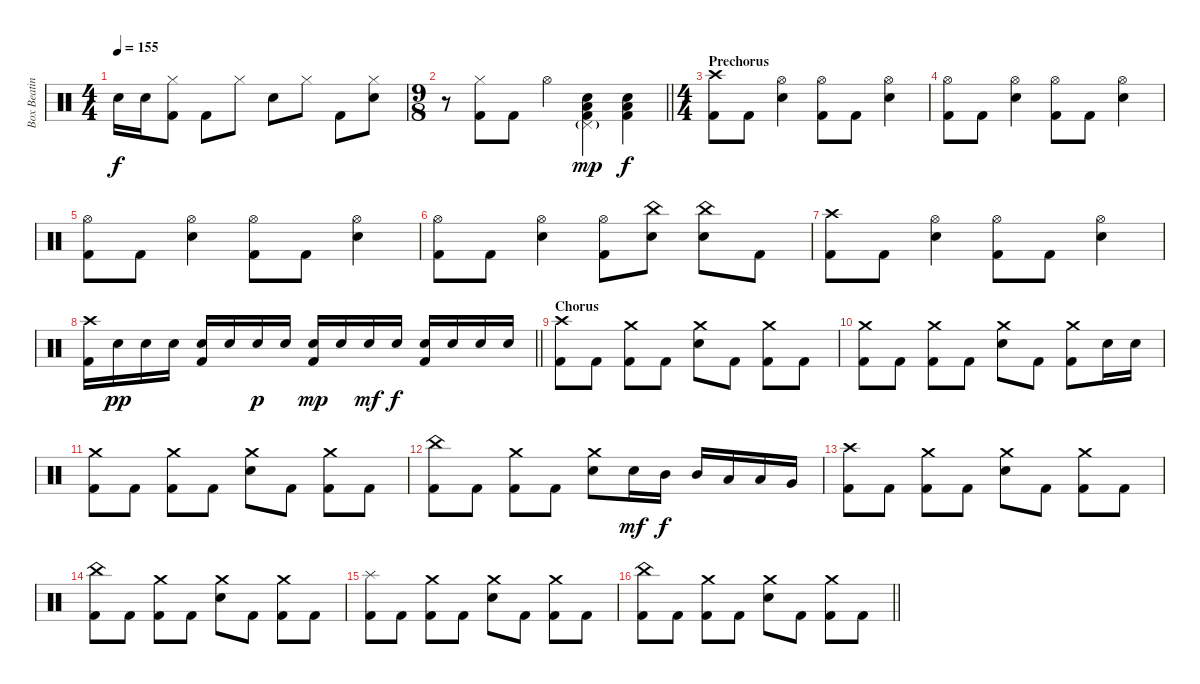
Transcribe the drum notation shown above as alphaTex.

\track ("Box Beating" "Box Beatin") {instrument percussion}
\staff {score}
\articulation defaults
\ts (4 4)
\tempo 155
\clef neutral
\ks c "Electric Snare (hit)".16{dy f} "Electric Snare (hit)".16
("Hi-Hat (closed)" "Kick (hit) 2").8 "Kick (hit) 2".8 "Hi-Hat (closed)".8 "Electric Snare (hit)".8 "Hi-Hat (closed)".8 "Kick (hit) 2".8 ("Hi-Hat (closed)" "Electric Snare (hit)").8 |
\ts (9 8)
\barLineRight lightlight
r.8 ("Hi-Hat (closed)" "Kick (hit) 2").8 "Kick (hit) 2".8 "Hi-Hat (open)".4 ("Pedal Hi-Hat (hit)"{g} "Low Floor Tom (hit)" "Electric Snare (hit)" "Kick (hit) 2").4{dy mp} ("Low Floor Tom (hit)" "Electric Snare (hit)" "Kick (hit) 2").4{dy f} |
\ts (4 4)
\section ("" "Prechorus")
("Crash high (hit)" "Kick (hit) 2").8 "Kick (hit) 2".8 ("Hi-Hat (open)" "Electric Snare (hit)").4 ("Hi-Hat (open)" "Kick (hit) 2").8 "Kick (hit) 2".8 ("Hi-Hat (open)" "Electric Snare (hit)").4 |
("Hi-Hat (open)" "Kick (hit) 2").8 "Kick (hit) 2".8 ("Hi-Hat (open)" "Electric Snare (hit)").4 ("Hi-Hat (open)" "Kick (hit) 2").8 "Kick (hit) 2".8 ("Hi-Hat (open)" "Electric Snare (hit)").4 |
("Hi-Hat (open)" "Kick (hit) 2").8 "Kick (hit) 2".8 ("Hi-Hat (open)" "Electric Snare (hit)").4 ("Hi-Hat (open)" "Kick (hit) 2").8 "Kick (hit) 2".8 ("Hi-Hat (open)" "Electric Snare (hit)").4 |
("Hi-Hat (open)" "Kick (hit) 2").8 "Kick (hit) 2".8 ("Hi-Hat (open)" "Electric Snare (hit)").4 ("Hi-Hat (open)" "Kick (hit) 2").8 ("China (hit)" "Electric Snare (hit)").8 ("China (hit)" "Electric Snare (hit)").8 "Kick (hit) 2".8 |
("Crash high (hit)" "Kick (hit) 2").8 "Kick (hit) 2".8 ("Hi-Hat (open)" "Electric Snare (hit)").4 ("Hi-Hat (open)" "Kick (hit) 2").8 "Kick (hit) 2".8 ("Hi-Hat (open)" "Electric Snare (hit)").4 |
\barLineRight lightlight
("Crash high (hit)" "Kick (hit) 2").16 "Electric Snare (hit)".16{dy pp} "Electric Snare (hit)".16 "Electric Snare (hit)".16 ("Electric Snare (hit)" "Kick (hit) 2").16 "Electric Snare (hit)".16 "Electric Snare (hit)".16{dy p} "Electric Snare (hit)".16 ("Electric Snare (hit)" "Kick (hit) 2").16{dy mp} "Electric Snare (hit)".16 "Electric Snare (hit)".16{dy mf} "Electric Snare (hit)".16{dy f} ("Electric Snare (hit)" "Kick (hit) 2").16 "Electric Snare (hit)".16 "Electric Snare (hit)".16 "Electric Snare (hit)".16 |
\section ("" "Chorus")
("Crash high (hit)" "Kick (hit) 2").8 "Kick (hit) 2".8 ("Crash medium (hit)" "Kick (hit) 2").8 "Kick (hit) 2".8 ("Crash medium (hit)" "Electric Snare (hit)").8 "Kick (hit) 2".8 ("Crash medium (hit)" "Kick (hit) 2").8 "Kick (hit) 2".8 |
("Crash medium (hit)" "Kick (hit) 2").8 "Kick (hit) 2".8 ("Crash medium (hit)" "Kick (hit) 2").8 "Kick (hit) 2".8 ("Crash medium (hit)" "Electric Snare (hit)").8 "Kick (hit) 2".8 ("Crash medium (hit)" "Kick (hit) 2").8 "Electric Snare (hit)".16 "Electric Snare (hit)".16 |
("Crash medium (hit)" "Kick (hit) 2").8 "Kick (hit) 2".8 ("Crash medium (hit)" "Kick (hit) 2").8 "Kick (hit) 2".8 ("Crash medium (hit)" "Electric Snare (hit)").8 "Kick (hit) 2".8 ("Crash medium (hit)" "Kick (hit) 2").8 "Kick (hit) 2".8 |
("China (hit)" "Kick (hit) 2").8 "Kick (hit) 2".8 ("Crash medium (hit)" "Kick (hit) 2").8 "Kick (hit) 2".8 ("Crash medium (hit)" "Electric Snare (hit)").8 "Electric Snare (hit)".16{dy mf} "Mid Tom (hit)".16{dy f} "Mid Tom (hit)".16 "Low Tom (hit)".16 "Low Tom (hit)".16 "Very Low Tom (hit)".16 |
("Crash high (hit)" "Kick (hit) 2").8 "Kick (hit) 2".8 ("Crash medium (hit)" "Kick (hit) 2").8 "Kick (hit) 2".8 ("Crash medium (hit)" "Electric Snare (hit)").8 "Kick (hit) 2".8 ("Crash medium (hit)" "Kick (hit) 2").8 "Kick (hit) 2".8 |
("China (hit)" "Kick (hit) 2").8 "Kick (hit) 2".8 ("Crash medium (hit)" "Kick (hit) 2").8 "Kick (hit) 2".8 ("Crash medium (hit)" "Electric Snare (hit)").8 "Kick (hit) 2".8 ("Crash medium (hit)" "Kick (hit) 2").8 "Kick (hit) 2".8 |
("Splash (hit)" "Kick (hit) 2").8 "Kick (hit) 2".8 ("Crash medium (hit)" "Kick (hit) 2").8 "Kick (hit) 2".8 ("Crash medium (hit)" "Electric Snare (hit)").8 "Kick (hit) 2".8 ("Crash medium (hit)" "Kick (hit) 2").8 "Kick (hit) 2".8 |
\barLineRight lightlight
("China (hit)" "Kick (hit) 2").8 "Kick (hit) 2".8 ("Crash medium (hit)" "Kick (hit) 2").8 "Kick (hit) 2".8 ("Crash medium (hit)" "Electric Snare (hit)").8 "Kick (hit) 2".8 ("Crash medium (hit)" "Kick (hit) 2").8 "Kick (hit) 2".8
